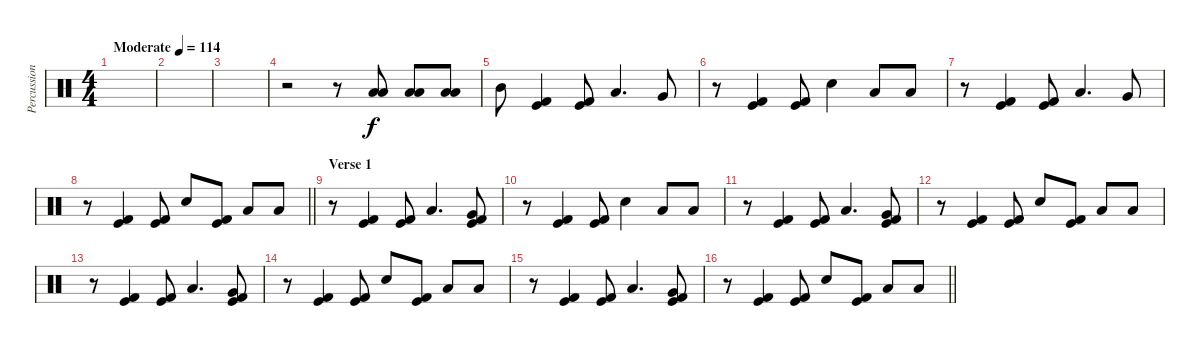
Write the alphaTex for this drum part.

\track ("Percussion" "Percussion") {instrument percussion}
\staff {score}
\articulation defaults
\ts (4 4)
\tempo (114 "Moderate")
\clef neutral
\ks c
|
|
|
r.2 r.8 ("Low Tom (hit)" "Low Floor Tom (hit)").8 ("Low Tom (hit)" "Low Floor Tom (hit)").8 ("Low Tom (hit)" "Low Floor Tom (hit)").8 |
"Mid Tom (hit)".8 ("Kick (hit)" "Kick (hit) 2").4 ("Kick (hit)" "Kick (hit) 2").8 "Low Tom (hit)".4{d} "Very Low Tom (hit)".8 |
r.8 ("Kick (hit)" "Kick (hit) 2").4 ("Kick (hit)" "Kick (hit) 2").8 "Electric Snare (hit)".4 "Low Tom (hit)".8 "Low Tom (hit)".8 |
r.8 ("Kick (hit)" "Kick (hit) 2").4 ("Kick (hit)" "Kick (hit) 2").8 "Low Tom (hit)".4{d} "Very Low Tom (hit)".8 |
\barLineRight lightlight
r.8 ("Kick (hit)" "Kick (hit) 2").4 ("Kick (hit)" "Kick (hit) 2").8 "Electric Snare (hit)".8 ("Kick (hit)" "Kick (hit) 2").8 "Low Tom (hit)".8 "Low Tom (hit)".8 |
\section ("" "Verse 1")
r.8 ("Kick (hit)" "Kick (hit) 2").4 ("Kick (hit)" "Kick (hit) 2").8 "Low Tom (hit)".4{d} ("Very Low Tom (hit)" "Kick (hit)" "Kick (hit) 2").8 |
r.8 ("Kick (hit)" "Kick (hit) 2").4 ("Kick (hit)" "Kick (hit) 2").8 "Electric Snare (hit)".4 "Low Tom (hit)".8 "Low Tom (hit)".8 |
r.8 ("Kick (hit)" "Kick (hit) 2").4 ("Kick (hit)" "Kick (hit) 2").8 "Low Tom (hit)".4{d} ("Very Low Tom (hit)" "Kick (hit)" "Kick (hit) 2").8 |
r.8 ("Kick (hit)" "Kick (hit) 2").4 ("Kick (hit)" "Kick (hit) 2").8 "Electric Snare (hit)".8 ("Kick (hit)" "Kick (hit) 2").8 "Low Tom (hit)".8 "Low Tom (hit)".8 |
r.8 ("Kick (hit)" "Kick (hit) 2").4 ("Kick (hit)" "Kick (hit) 2").8 "Low Tom (hit)".4{d} ("Very Low Tom (hit)" "Kick (hit)" "Kick (hit) 2").8 |
r.8 ("Kick (hit)" "Kick (hit) 2").4 ("Kick (hit)" "Kick (hit) 2").8 "Electric Snare (hit)".8 ("Kick (hit)" "Kick (hit) 2").8 "Low Tom (hit)".8 "Low Tom (hit)".8 |
r.8 ("Kick (hit)" "Kick (hit) 2").4 ("Kick (hit)" "Kick (hit) 2").8 "Low Tom (hit)".4{d} ("Very Low Tom (hit)" "Kick (hit)" "Kick (hit) 2").8 |
\barLineRight lightlight
r.8 ("Kick (hit)" "Kick (hit) 2").4 ("Kick (hit)" "Kick (hit) 2").8 "Electric Snare (hit)".8 ("Kick (hit)" "Kick (hit) 2").8 "Low Tom (hit)".8 "Low Tom (hit)".8
